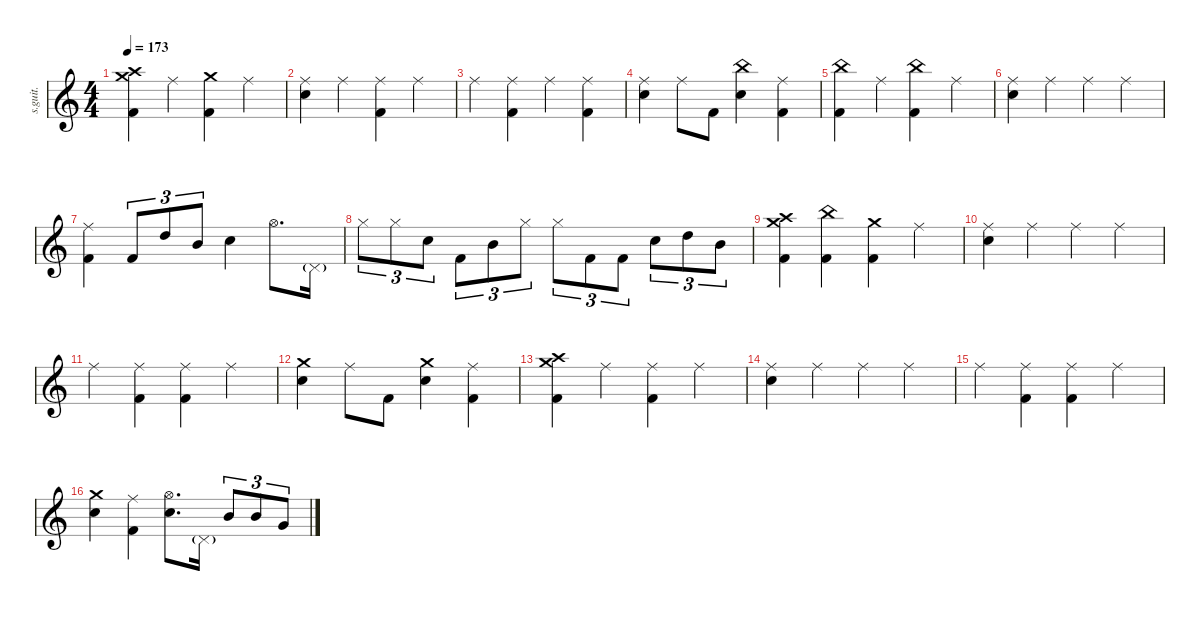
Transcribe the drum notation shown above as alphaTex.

\defaultSystemsLayout 4
\hideDynamics
\bracketExtendMode nobrackets
\track ("II" "s.guit.") {instrument percussion}
\staff {score}
\articulation defaults
\ts (4 4)
\tempo 173
\clef g2
\ks c
("Kick (hit) 2" "Crash medium (hit)" "Crash high (hit)").4{lyrics (0 "") lyrics (1 "") lyrics (2 "") lyrics (3 "") lyrics (4 "") dy mf} "Ride (middle)".4{lyrics (0 "") lyrics (1 "") lyrics (2 "") lyrics (3 "") lyrics (4 "")} ("Kick (hit) 2" "Crash medium (hit)").4{lyrics (0 "") lyrics (1 "") lyrics (2 "") lyrics (3 "") lyrics (4 "")} "Ride (middle)".4{lyrics (0 "") lyrics (1 "") lyrics (2 "") lyrics (3 "") lyrics (4 "")} |
("Ride (middle)" "Snare (hit) 2").4{lyrics (0 "") lyrics (1 "") lyrics (2 "") lyrics (3 "") lyrics (4 "")} "Ride (middle)".4{lyrics (0 "") lyrics (1 "") lyrics (2 "") lyrics (3 "") lyrics (4 "")} ("Ride (middle)" "Kick (hit) 2").4{lyrics (0 "") lyrics (1 "") lyrics (2 "") lyrics (3 "") lyrics (4 "")} "Ride (middle)".4{lyrics (0 "") lyrics (1 "") lyrics (2 "") lyrics (3 "") lyrics (4 "")} |
"Ride (middle)".4{lyrics (0 "") lyrics (1 "") lyrics (2 "") lyrics (3 "") lyrics (4 "")} ("Ride (middle)" "Kick (hit) 2").4{lyrics (0 "") lyrics (1 "") lyrics (2 "") lyrics (3 "") lyrics (4 "")} "Ride (middle)".4{lyrics (0 "") lyrics (1 "") lyrics (2 "") lyrics (3 "") lyrics (4 "")} ("Ride (middle)" "Kick (hit) 2").4{lyrics (0 "") lyrics (1 "") lyrics (2 "") lyrics (3 "") lyrics (4 "")} |
("Snare (hit) 2" "Ride (middle)").4{lyrics (0 "") lyrics (1 "") lyrics (2 "") lyrics (3 "") lyrics (4 "")} "Ride (middle)".8{lyrics (0 "") lyrics (1 "") lyrics (2 "") lyrics (3 "") lyrics (4 "")} "Kick (hit) 2".8{lyrics (0 "") lyrics (1 "") lyrics (2 "") lyrics (3 "") lyrics (4 "")} ("Snare (hit) 2" "China (hit)").4{lyrics (0 "") lyrics (1 "") lyrics (2 "") lyrics (3 "") lyrics (4 "")} ("Kick (hit) 2" "Ride (middle)").4{lyrics (0 "") lyrics (1 "") lyrics (2 "") lyrics (3 "") lyrics (4 "")} |
("Kick (hit) 2" "China (hit)").4{lyrics (0 "") lyrics (1 "") lyrics (2 "") lyrics (3 "") lyrics (4 "")} "Ride (middle)".4{lyrics (0 "") lyrics (1 "") lyrics (2 "") lyrics (3 "") lyrics (4 "")} ("Kick (hit) 2" "China (hit)").4{lyrics (0 "") lyrics (1 "") lyrics (2 "") lyrics (3 "") lyrics (4 "")} "Ride (middle)".4{lyrics (0 "") lyrics (1 "") lyrics (2 "") lyrics (3 "") lyrics (4 "")} |
("Ride (middle)" "Snare (hit) 2").4{lyrics (0 "") lyrics (1 "") lyrics (2 "") lyrics (3 "") lyrics (4 "")} "Ride (middle)".4{lyrics (0 "") lyrics (1 "") lyrics (2 "") lyrics (3 "") lyrics (4 "")} "Ride (middle)".4{lyrics (0 "") lyrics (1 "") lyrics (2 "") lyrics (3 "") lyrics (4 "")} "Ride (middle)".4{lyrics (0 "") lyrics (1 "") lyrics (2 "") lyrics (3 "") lyrics (4 "")} |
("Ride (middle)" "Kick (hit) 2").4{lyrics (0 "") lyrics (1 "") lyrics (2 "") lyrics (3 "") lyrics (4 "")} "Kick (hit) 2".8{tu (3 2) lyrics (0 "") lyrics (1 "") lyrics (2 "") lyrics (3 "") lyrics (4 "")} "High Tom (hit)".8{tu (3 2) lyrics (0 "") lyrics (1 "") lyrics (2 "") lyrics (3 "") lyrics (4 "")} "Mid Tom (hit)".8{tu (3 2) lyrics (0 "") lyrics (1 "") lyrics (2 "") lyrics (3 "") lyrics (4 "")} "Snare (hit) 2".4{lyrics (0 "") lyrics (1 "") lyrics (2 "") lyrics (3 "") lyrics (4 "")} "Hi-Hat (open)".8{d lyrics (0 "") lyrics (1 "") lyrics (2 "") lyrics (3 "") lyrics (4 "")} "Pedal Hi-Hat (hit)"{g}.16{lyrics (0 "") lyrics (1 "") lyrics (2 "") lyrics (3 "") lyrics (4 "") dy pp} |
"Hi-Hat (closed)".8{tu (3 2) lyrics (0 "") lyrics (1 "") lyrics (2 "") lyrics (3 "") lyrics (4 "") dy mf} "Hi-Hat (closed)".8{tu (3 2) lyrics (0 "") lyrics (1 "") lyrics (2 "") lyrics (3 "") lyrics (4 "")} "Snare (hit) 2".8{tu (3 2) lyrics (0 "") lyrics (1 "") lyrics (2 "") lyrics (3 "") lyrics (4 "")} "Kick (hit) 2".8{tu (3 2) lyrics (0 "") lyrics (1 "") lyrics (2 "") lyrics (3 "") lyrics (4 "")} "Mid Tom (hit)".8{tu (3 2) lyrics (0 "") lyrics (1 "") lyrics (2 "") lyrics (3 "") lyrics (4 "")} "Hi-Hat (closed)".8{tu (3 2) lyrics (0 "") lyrics (1 "") lyrics (2 "") lyrics (3 "") lyrics (4 "")} "Hi-Hat (closed)".8{tu (3 2) lyrics (0 "") lyrics (1 "") lyrics (2 "") lyrics (3 "") lyrics (4 "")} "Kick (hit) 2".8{tu (3 2) lyrics (0 "") lyrics (1 "") lyrics (2 "") lyrics (3 "") lyrics (4 "")} "Kick (hit) 2".8{tu (3 2) lyrics (0 "") lyrics (1 "") lyrics (2 "") lyrics (3 "") lyrics (4 "")} "Snare (hit) 2".8{tu (3 2) lyrics (0 "") lyrics (1 "") lyrics (2 "") lyrics (3 "") lyrics (4 "")} "High Tom (hit)".8{tu (3 2) lyrics (0 "") lyrics (1 "") lyrics (2 "") lyrics (3 "") lyrics (4 "")} "Mid Tom (hit)".8{tu (3 2) lyrics (0 "") lyrics (1 "") lyrics (2 "") lyrics (3 "") lyrics (4 "")} |
("Kick (hit) 2" "Crash medium (hit)" "Crash high (hit)").4{lyrics (0 "") lyrics (1 "") lyrics (2 "") lyrics (3 "") lyrics (4 "")} ("China (hit)" "Kick (hit) 2").4{lyrics (0 "") lyrics (1 "") lyrics (2 "") lyrics (3 "") lyrics (4 "")} ("Kick (hit) 2" "Crash medium (hit)").4{lyrics (0 "") lyrics (1 "") lyrics (2 "") lyrics (3 "") lyrics (4 "")} "Ride (middle)".4{lyrics (0 "") lyrics (1 "") lyrics (2 "") lyrics (3 "") lyrics (4 "")} |
("Ride (middle)" "Snare (hit) 2").4{lyrics (0 "") lyrics (1 "") lyrics (2 "") lyrics (3 "") lyrics (4 "")} "Ride (middle)".4{lyrics (0 "") lyrics (1 "") lyrics (2 "") lyrics (3 "") lyrics (4 "")} "Ride (middle)".4{lyrics (0 "") lyrics (1 "") lyrics (2 "") lyrics (3 "") lyrics (4 "")} "Ride (middle)".4{lyrics (0 "") lyrics (1 "") lyrics (2 "") lyrics (3 "") lyrics (4 "")} |
"Ride (middle)".4{lyrics (0 "") lyrics (1 "") lyrics (2 "") lyrics (3 "") lyrics (4 "")} ("Ride (middle)" "Kick (hit) 2").4{lyrics (0 "") lyrics (1 "") lyrics (2 "") lyrics (3 "") lyrics (4 "")} ("Ride (middle)" "Kick (hit) 2").4{lyrics (0 "") lyrics (1 "") lyrics (2 "") lyrics (3 "") lyrics (4 "")} "Ride (middle)".4{lyrics (0 "") lyrics (1 "") lyrics (2 "") lyrics (3 "") lyrics (4 "")} |
("Snare (hit) 2" "Crash medium (hit)").4{lyrics (0 "") lyrics (1 "") lyrics (2 "") lyrics (3 "") lyrics (4 "")} "Ride (middle)".8{lyrics (0 "") lyrics (1 "") lyrics (2 "") lyrics (3 "") lyrics (4 "")} "Kick (hit) 2".8{lyrics (0 "") lyrics (1 "") lyrics (2 "") lyrics (3 "") lyrics (4 "")} ("Snare (hit) 2" "Crash medium (hit)").4{lyrics (0 "") lyrics (1 "") lyrics (2 "") lyrics (3 "") lyrics (4 "")} ("Kick (hit) 2" "Ride (middle)").4{lyrics (0 "") lyrics (1 "") lyrics (2 "") lyrics (3 "") lyrics (4 "")} |
("Kick (hit) 2" "Crash high (hit)" "Crash medium (hit)").4{lyrics (0 "") lyrics (1 "") lyrics (2 "") lyrics (3 "") lyrics (4 "")} "Ride (middle)".4{lyrics (0 "") lyrics (1 "") lyrics (2 "") lyrics (3 "") lyrics (4 "")} ("Ride (middle)" "Kick (hit) 2").4{lyrics (0 "") lyrics (1 "") lyrics (2 "") lyrics (3 "") lyrics (4 "")} "Ride (middle)".4{lyrics (0 "") lyrics (1 "") lyrics (2 "") lyrics (3 "") lyrics (4 "")} |
("Ride (middle)" "Snare (hit) 2").4{lyrics (0 "") lyrics (1 "") lyrics (2 "") lyrics (3 "") lyrics (4 "")} "Ride (middle)".4{lyrics (0 "") lyrics (1 "") lyrics (2 "") lyrics (3 "") lyrics (4 "")} "Ride (middle)".4{lyrics (0 "") lyrics (1 "") lyrics (2 "") lyrics (3 "") lyrics (4 "")} "Ride (middle)".4{lyrics (0 "") lyrics (1 "") lyrics (2 "") lyrics (3 "") lyrics (4 "")} |
"Ride (middle)".4{lyrics (0 "") lyrics (1 "") lyrics (2 "") lyrics (3 "") lyrics (4 "")} ("Ride (middle)" "Kick (hit) 2").4{lyrics (0 "") lyrics (1 "") lyrics (2 "") lyrics (3 "") lyrics (4 "")} ("Ride (middle)" "Kick (hit) 2").4{lyrics (0 "") lyrics (1 "") lyrics (2 "") lyrics (3 "") lyrics (4 "")} "Ride (middle)".4{lyrics (0 "") lyrics (1 "") lyrics (2 "") lyrics (3 "") lyrics (4 "")} |
("Snare (hit) 2" "Crash medium (hit)").4{lyrics (0 "") lyrics (1 "") lyrics (2 "") lyrics (3 "") lyrics (4 "")} ("Kick (hit) 2" "Ride (middle)").4{lyrics (0 "") lyrics (1 "") lyrics (2 "") lyrics (3 "") lyrics (4 "")} ("Hi-Hat (open)" "Snare (hit) 2").8{d lyrics (0 "") lyrics (1 "") lyrics (2 "") lyrics (3 "") lyrics (4 "")} "Pedal Hi-Hat (hit)"{g}.16{lyrics (0 "") lyrics (1 "") lyrics (2 "") lyrics (3 "") lyrics (4 "") dy pp} "Mid Tom (hit)".8{tu (3 2) lyrics (0 "") lyrics (1 "") lyrics (2 "") lyrics (3 "") lyrics (4 "") dy mf} "Mid Tom (hit)".8{tu (3 2) lyrics (0 "") lyrics (1 "") lyrics (2 "") lyrics (3 "") lyrics (4 "")} "Very Low Tom (hit)".8{tu (3 2) lyrics (0 "") lyrics (1 "") lyrics (2 "") lyrics (3 "") lyrics (4 "")}
